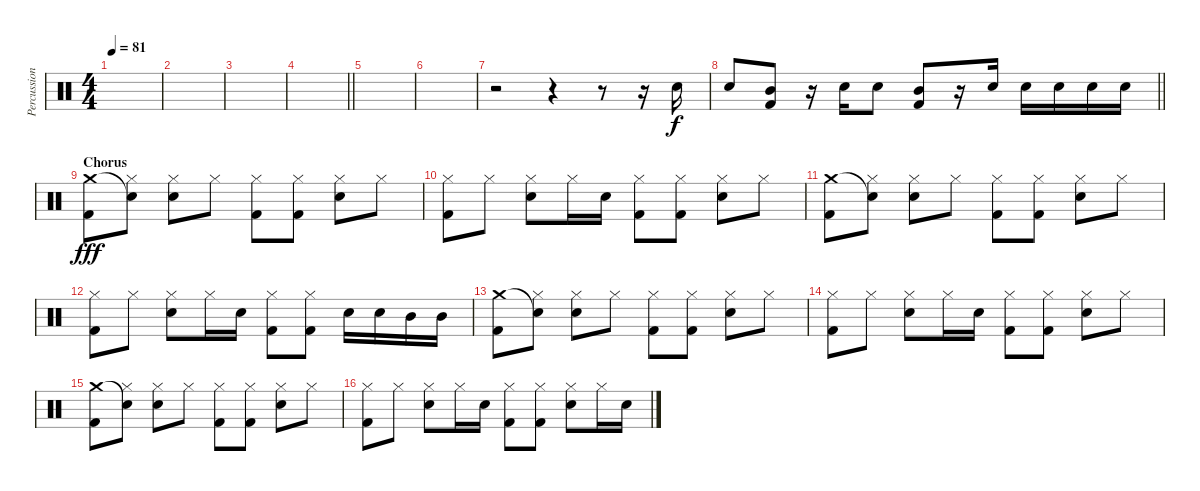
\track ("Percussion" "Percussion") {instrument percussion}
\staff {score}
\articulation defaults
\ts (4 4)
\tempo 81
\clef neutral
\ks c
|
|
|
\barLineRight lightlight
|
|
|
r.2 r.4 r.8 r.16 "Electric Snare (hit)".16 |
\barLineRight lightlight "Electric Snare (hit)".8
("Mid Tom (hit)" "Kick (hit) 2").8 r.16 "Electric Snare (hit)".16 "Electric Snare (hit)".8 ("Mid Tom (hit)" "Kick (hit) 2").8 r.16 "Electric Snare (hit)".16 "Electric Snare (hit)".16 "Electric Snare (hit)".16 "Electric Snare (hit)".16 "Electric Snare (hit)".16 |
\section ("" "Chorus")
("Crash medium (hit)" "Kick (hit) 2").8{dy fff} ("Snare (hit)"{t} "Hi-Hat (closed)").8 ("Hi-Hat (closed)" "Electric Snare (hit)").8 "Hi-Hat (closed)".8 ("Hi-Hat (closed)" "Kick (hit) 2").8 ("Hi-Hat (closed)" "Kick (hit) 2").8 ("Hi-Hat (closed)" "Electric Snare (hit)").8 "Hi-Hat (closed)".8 |
("Hi-Hat (closed)" "Kick (hit) 2").8 "Hi-Hat (closed)".8 ("Hi-Hat (closed)" "Electric Snare (hit)").8 "Hi-Hat (closed)".16 "Electric Snare (hit)".16 ("Hi-Hat (closed)" "Kick (hit) 2").8 ("Hi-Hat (closed)" "Kick (hit) 2").8 ("Hi-Hat (closed)" "Electric Snare (hit)").8 "Hi-Hat (closed)".8 |
("Crash medium (hit)" "Kick (hit) 2").8 ("Snare (hit)"{t} "Hi-Hat (closed)").8 ("Hi-Hat (closed)" "Electric Snare (hit)").8 "Hi-Hat (closed)".8 ("Hi-Hat (closed)" "Kick (hit) 2").8 ("Hi-Hat (closed)" "Kick (hit) 2").8 ("Hi-Hat (closed)" "Electric Snare (hit)").8 "Hi-Hat (closed)".8 |
("Hi-Hat (closed)" "Kick (hit) 2").8 "Hi-Hat (closed)".8 ("Hi-Hat (closed)" "Electric Snare (hit)").8 "Hi-Hat (closed)".16 "Electric Snare (hit)".16 ("Hi-Hat (closed)" "Kick (hit) 2").8 ("Hi-Hat (closed)" "Kick (hit) 2").8 "Electric Snare (hit)".16 "Electric Snare (hit)".16 "Mid Tom (hit)".16 "Mid Tom (hit)".16 |
("Crash medium (hit)" "Kick (hit) 2").8 ("Snare (hit)"{t} "Hi-Hat (closed)").8 ("Hi-Hat (closed)" "Electric Snare (hit)").8 "Hi-Hat (closed)".8 ("Hi-Hat (closed)" "Kick (hit) 2").8 ("Hi-Hat (closed)" "Kick (hit) 2").8 ("Hi-Hat (closed)" "Electric Snare (hit)").8 "Hi-Hat (closed)".8 |
("Hi-Hat (closed)" "Kick (hit) 2").8 "Hi-Hat (closed)".8 ("Hi-Hat (closed)" "Electric Snare (hit)").8 "Hi-Hat (closed)".16 "Electric Snare (hit)".16 ("Hi-Hat (closed)" "Kick (hit) 2").8 ("Hi-Hat (closed)" "Kick (hit) 2").8 ("Hi-Hat (closed)" "Electric Snare (hit)").8 "Hi-Hat (closed)".8 |
("Crash medium (hit)" "Kick (hit) 2").8 ("Snare (hit)"{t} "Hi-Hat (closed)").8 ("Hi-Hat (closed)" "Electric Snare (hit)").8 "Hi-Hat (closed)".8 ("Hi-Hat (closed)" "Kick (hit) 2").8 ("Hi-Hat (closed)" "Kick (hit) 2").8 ("Hi-Hat (closed)" "Electric Snare (hit)").8 "Hi-Hat (closed)".8 |
("Hi-Hat (closed)" "Kick (hit) 2").8 "Hi-Hat (closed)".8 ("Hi-Hat (closed)" "Electric Snare (hit)").8 "Hi-Hat (closed)".16 "Electric Snare (hit)".16 ("Hi-Hat (closed)" "Kick (hit) 2").8 ("Hi-Hat (closed)" "Kick (hit) 2").8 ("Hi-Hat (closed)" "Electric Snare (hit)").8 "Hi-Hat (closed)".16 "Electric Snare (hit)".16
